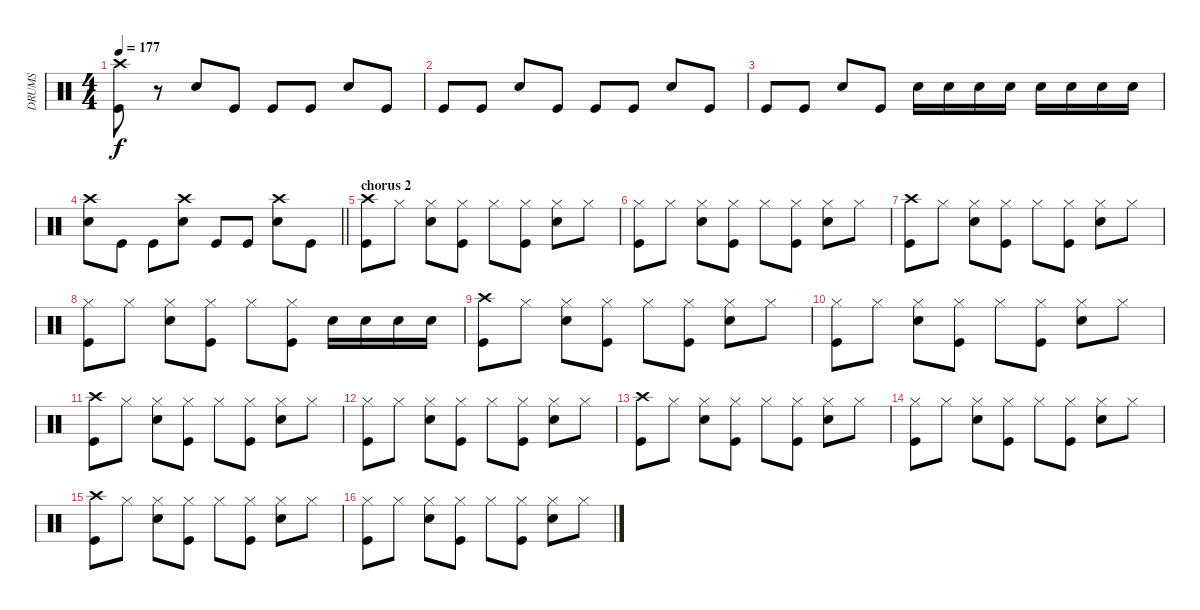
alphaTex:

\track ("DRUMS" "DRUMS") {instrument percussion}
\staff {score}
\articulation defaults
\ts (4 4)
\tempo 177
\clef neutral
\ks c
("Crash high (hit)" "Kick (hit)").8{dy f} r.8 "Snare (hit) 2".8 "Kick (hit)".8 "Kick (hit)".8 "Kick (hit)".8 "Snare (hit) 2".8 "Kick (hit)".8 |
"Kick (hit)".8 "Kick (hit)".8 "Snare (hit) 2".8 "Kick (hit)".8 "Kick (hit)".8 "Kick (hit)".8 "Snare (hit) 2".8 "Kick (hit)".8 |
"Kick (hit)".8 "Kick (hit)".8 "Snare (hit) 2".8 "Kick (hit)".8 "Snare (hit) 2".16 "Snare (hit) 2".16 "Snare (hit) 2".16 "Snare (hit) 2".16 "Snare (hit) 2".16 "Snare (hit) 2".16 "Snare (hit) 2".16 "Snare (hit) 2".16 |
\barLineRight lightlight
("Crash high (hit)" "Snare (hit) 2").8 "Kick (hit)".8 "Kick (hit)".8 ("Crash high (hit)" "Snare (hit) 2").8 "Kick (hit)".8 "Kick (hit)".8 ("Crash high (hit)" "Snare (hit) 2").8 "Kick (hit)".8 |
\section ("" "chorus 2")
("Crash high (hit)" "Kick (hit)").8 "Hi-Hat (closed)".8 ("Hi-Hat (closed)" "Snare (hit) 2").8 ("Hi-Hat (closed)" "Kick (hit)").8 "Hi-Hat (closed)".8 ("Hi-Hat (closed)" "Kick (hit)").8 ("Hi-Hat (closed)" "Snare (hit) 2").8 "Hi-Hat (closed)".8 |
("Hi-Hat (closed)" "Kick (hit)").8 "Hi-Hat (closed)".8 ("Hi-Hat (closed)" "Snare (hit) 2").8 ("Hi-Hat (closed)" "Kick (hit)").8 "Hi-Hat (closed)".8 ("Hi-Hat (closed)" "Kick (hit)").8 ("Hi-Hat (closed)" "Snare (hit) 2").8 "Hi-Hat (closed)".8 |
("Crash high (hit)" "Kick (hit)").8 "Hi-Hat (closed)".8 ("Hi-Hat (closed)" "Snare (hit) 2").8 ("Hi-Hat (closed)" "Kick (hit)").8 "Hi-Hat (closed)".8 ("Hi-Hat (closed)" "Kick (hit)").8 ("Hi-Hat (closed)" "Snare (hit) 2").8 "Hi-Hat (closed)".8 |
("Hi-Hat (closed)" "Kick (hit)").8 "Hi-Hat (closed)".8 ("Hi-Hat (closed)" "Snare (hit) 2").8 ("Hi-Hat (closed)" "Kick (hit)").8 "Hi-Hat (closed)".8 ("Hi-Hat (closed)" "Kick (hit)").8 "Snare (hit) 2".16 "Snare (hit) 2".16 "Snare (hit) 2".16 "Snare (hit) 2".16 |
("Crash high (hit)" "Kick (hit)").8 "Hi-Hat (closed)".8 ("Hi-Hat (closed)" "Snare (hit) 2").8 ("Hi-Hat (closed)" "Kick (hit)").8 "Hi-Hat (closed)".8 ("Hi-Hat (closed)" "Kick (hit)").8 ("Hi-Hat (closed)" "Snare (hit) 2").8 "Hi-Hat (closed)".8 |
("Hi-Hat (closed)" "Kick (hit)").8 "Hi-Hat (closed)".8 ("Hi-Hat (closed)" "Snare (hit) 2").8 ("Hi-Hat (closed)" "Kick (hit)").8 "Hi-Hat (closed)".8 ("Hi-Hat (closed)" "Kick (hit)").8 ("Hi-Hat (closed)" "Snare (hit) 2").8 "Hi-Hat (closed)".8 |
("Crash high (hit)" "Kick (hit)").8 "Hi-Hat (closed)".8 ("Hi-Hat (closed)" "Snare (hit) 2").8 ("Hi-Hat (closed)" "Kick (hit)").8 "Hi-Hat (closed)".8 ("Hi-Hat (closed)" "Kick (hit)").8 ("Hi-Hat (closed)" "Snare (hit) 2").8 "Hi-Hat (closed)".8 |
("Hi-Hat (closed)" "Kick (hit)").8 "Hi-Hat (closed)".8 ("Hi-Hat (closed)" "Snare (hit) 2").8 ("Hi-Hat (closed)" "Kick (hit)").8 "Hi-Hat (closed)".8 ("Hi-Hat (closed)" "Kick (hit)").8 ("Hi-Hat (closed)" "Snare (hit) 2").8 "Hi-Hat (closed)".8 |
("Crash high (hit)" "Kick (hit)").8 "Hi-Hat (closed)".8 ("Hi-Hat (closed)" "Snare (hit) 2").8 ("Hi-Hat (closed)" "Kick (hit)").8 "Hi-Hat (closed)".8 ("Hi-Hat (closed)" "Kick (hit)").8 ("Hi-Hat (closed)" "Snare (hit) 2").8 "Hi-Hat (closed)".8 |
("Hi-Hat (closed)" "Kick (hit)").8 "Hi-Hat (closed)".8 ("Hi-Hat (closed)" "Snare (hit) 2").8 ("Hi-Hat (closed)" "Kick (hit)").8 "Hi-Hat (closed)".8 ("Hi-Hat (closed)" "Kick (hit)").8 ("Hi-Hat (closed)" "Snare (hit) 2").8 "Hi-Hat (closed)".8 |
("Crash high (hit)" "Kick (hit)").8 "Hi-Hat (closed)".8 ("Hi-Hat (closed)" "Snare (hit) 2").8 ("Hi-Hat (closed)" "Kick (hit)").8 "Hi-Hat (closed)".8 ("Hi-Hat (closed)" "Kick (hit)").8 ("Hi-Hat (closed)" "Snare (hit) 2").8 "Hi-Hat (closed)".8 |
("Hi-Hat (closed)" "Kick (hit)").8 "Hi-Hat (closed)".8 ("Hi-Hat (closed)" "Snare (hit) 2").8 ("Hi-Hat (closed)" "Kick (hit)").8 "Hi-Hat (closed)".8 ("Hi-Hat (closed)" "Kick (hit)").8 ("Hi-Hat (closed)" "Snare (hit) 2").8 "Hi-Hat (closed)".8
